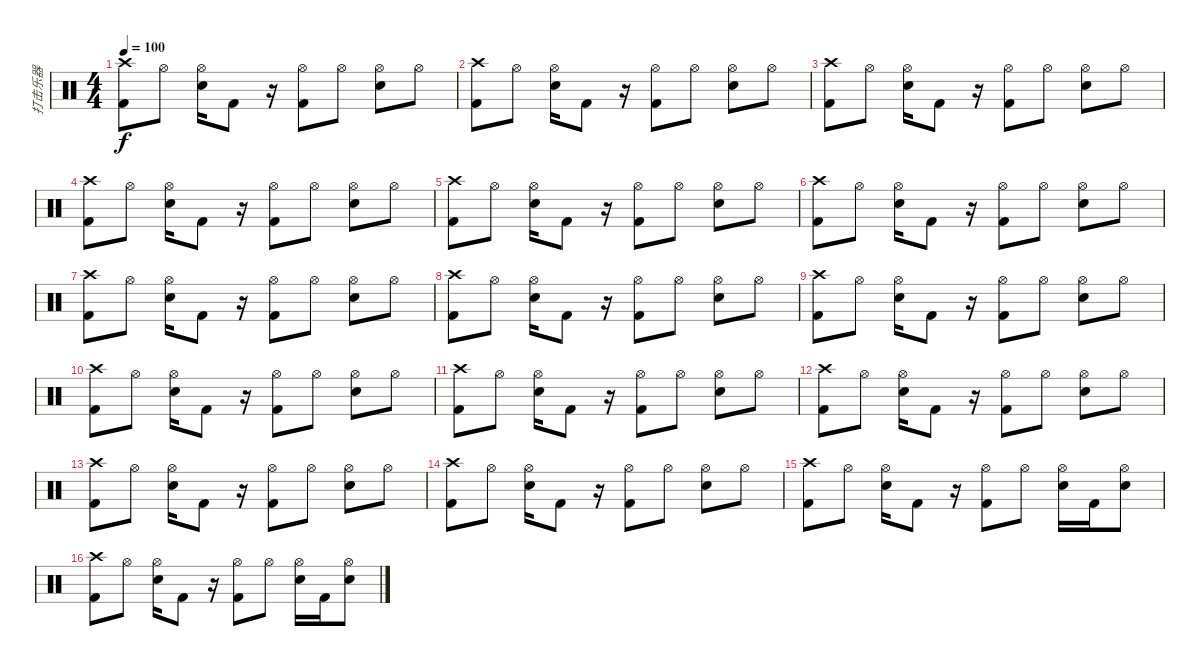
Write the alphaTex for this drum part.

\track ("打击乐器" "打击乐器") {instrument percussion}
\staff {score}
\articulation defaults
\ts (4 4)
\tempo 100
\clef neutral
\ks c
("Crash high (hit)" "Kick (hit) 2").8{dy f} "Hi-Hat (open)".8 ("Electric Snare (hit)" "Hi-Hat (open)").16 "Kick (hit) 2".8 r.16 ("Kick (hit) 2" "Hi-Hat (open)").8 "Hi-Hat (open)".8 ("Electric Snare (hit)" "Hi-Hat (open)").8 "Hi-Hat (open)".8 |
("Crash high (hit)" "Kick (hit) 2").8 "Hi-Hat (open)".8 ("Electric Snare (hit)" "Hi-Hat (open)").16 "Kick (hit) 2".8 r.16 ("Kick (hit) 2" "Hi-Hat (open)").8 "Hi-Hat (open)".8 ("Electric Snare (hit)" "Hi-Hat (open)").8 "Hi-Hat (open)".8 |
("Crash high (hit)" "Kick (hit) 2").8 "Hi-Hat (open)".8 ("Electric Snare (hit)" "Hi-Hat (open)").16 "Kick (hit) 2".8 r.16 ("Kick (hit) 2" "Hi-Hat (open)").8 "Hi-Hat (open)".8 ("Electric Snare (hit)" "Hi-Hat (open)").8 "Hi-Hat (open)".8 |
("Crash high (hit)" "Kick (hit) 2").8 "Hi-Hat (open)".8 ("Electric Snare (hit)" "Hi-Hat (open)").16 "Kick (hit) 2".8 r.16 ("Kick (hit) 2" "Hi-Hat (open)").8 "Hi-Hat (open)".8 ("Electric Snare (hit)" "Hi-Hat (open)").8 "Hi-Hat (open)".8 |
("Crash high (hit)" "Kick (hit) 2").8 "Hi-Hat (open)".8 ("Electric Snare (hit)" "Hi-Hat (open)").16 "Kick (hit) 2".8 r.16 ("Kick (hit) 2" "Hi-Hat (open)").8 "Hi-Hat (open)".8 ("Electric Snare (hit)" "Hi-Hat (open)").8 "Hi-Hat (open)".8 |
("Crash high (hit)" "Kick (hit) 2").8 "Hi-Hat (open)".8 ("Electric Snare (hit)" "Hi-Hat (open)").16 "Kick (hit) 2".8 r.16 ("Kick (hit) 2" "Hi-Hat (open)").8 "Hi-Hat (open)".8 ("Electric Snare (hit)" "Hi-Hat (open)").8 "Hi-Hat (open)".8 |
("Crash high (hit)" "Kick (hit) 2").8 "Hi-Hat (open)".8 ("Electric Snare (hit)" "Hi-Hat (open)").16 "Kick (hit) 2".8 r.16 ("Kick (hit) 2" "Hi-Hat (open)").8 "Hi-Hat (open)".8 ("Electric Snare (hit)" "Hi-Hat (open)").8 "Hi-Hat (open)".8 |
("Crash high (hit)" "Kick (hit) 2").8 "Hi-Hat (open)".8 ("Electric Snare (hit)" "Hi-Hat (open)").16 "Kick (hit) 2".8 r.16 ("Kick (hit) 2" "Hi-Hat (open)").8 "Hi-Hat (open)".8 ("Electric Snare (hit)" "Hi-Hat (open)").8 "Hi-Hat (open)".8 |
("Crash high (hit)" "Kick (hit) 2").8 "Hi-Hat (open)".8 ("Electric Snare (hit)" "Hi-Hat (open)").16 "Kick (hit) 2".8 r.16 ("Kick (hit) 2" "Hi-Hat (open)").8 "Hi-Hat (open)".8 ("Electric Snare (hit)" "Hi-Hat (open)").8 "Hi-Hat (open)".8 |
("Crash high (hit)" "Kick (hit) 2").8 "Hi-Hat (open)".8 ("Electric Snare (hit)" "Hi-Hat (open)").16 "Kick (hit) 2".8 r.16 ("Kick (hit) 2" "Hi-Hat (open)").8 "Hi-Hat (open)".8 ("Electric Snare (hit)" "Hi-Hat (open)").8 "Hi-Hat (open)".8 |
("Crash high (hit)" "Kick (hit) 2").8 "Hi-Hat (open)".8 ("Electric Snare (hit)" "Hi-Hat (open)").16 "Kick (hit) 2".8 r.16 ("Kick (hit) 2" "Hi-Hat (open)").8 "Hi-Hat (open)".8 ("Electric Snare (hit)" "Hi-Hat (open)").8 "Hi-Hat (open)".8 |
("Crash high (hit)" "Kick (hit) 2").8 "Hi-Hat (open)".8 ("Electric Snare (hit)" "Hi-Hat (open)").16 "Kick (hit) 2".8 r.16 ("Kick (hit) 2" "Hi-Hat (open)").8 "Hi-Hat (open)".8 ("Electric Snare (hit)" "Hi-Hat (open)").8 "Hi-Hat (open)".8 |
("Crash high (hit)" "Kick (hit) 2").8 "Hi-Hat (open)".8 ("Electric Snare (hit)" "Hi-Hat (open)").16 "Kick (hit) 2".8 r.16 ("Kick (hit) 2" "Hi-Hat (open)").8 "Hi-Hat (open)".8 ("Electric Snare (hit)" "Hi-Hat (open)").8 "Hi-Hat (open)".8 |
("Crash high (hit)" "Kick (hit) 2").8 "Hi-Hat (open)".8 ("Electric Snare (hit)" "Hi-Hat (open)").16 "Kick (hit) 2".8 r.16 ("Kick (hit) 2" "Hi-Hat (open)").8 "Hi-Hat (open)".8 ("Electric Snare (hit)" "Hi-Hat (open)").8 "Hi-Hat (open)".8 |
("Crash high (hit)" "Kick (hit) 2").8 "Hi-Hat (open)".8 ("Electric Snare (hit)" "Hi-Hat (open)").16 "Kick (hit) 2".8 r.16 ("Kick (hit) 2" "Hi-Hat (open)").8 "Hi-Hat (open)".8 ("Electric Snare (hit)" "Hi-Hat (open)").16 "Kick (hit) 2".16 ("Electric Snare (hit)" "Hi-Hat (open)").8 |
("Crash high (hit)" "Kick (hit) 2").8 "Hi-Hat (open)".8 ("Electric Snare (hit)" "Hi-Hat (open)").16 "Kick (hit) 2".8 r.16 ("Kick (hit) 2" "Hi-Hat (open)").8 "Hi-Hat (open)".8 ("Electric Snare (hit)" "Hi-Hat (open)").16 "Kick (hit) 2".16 ("Electric Snare (hit)" "Hi-Hat (open)").8
